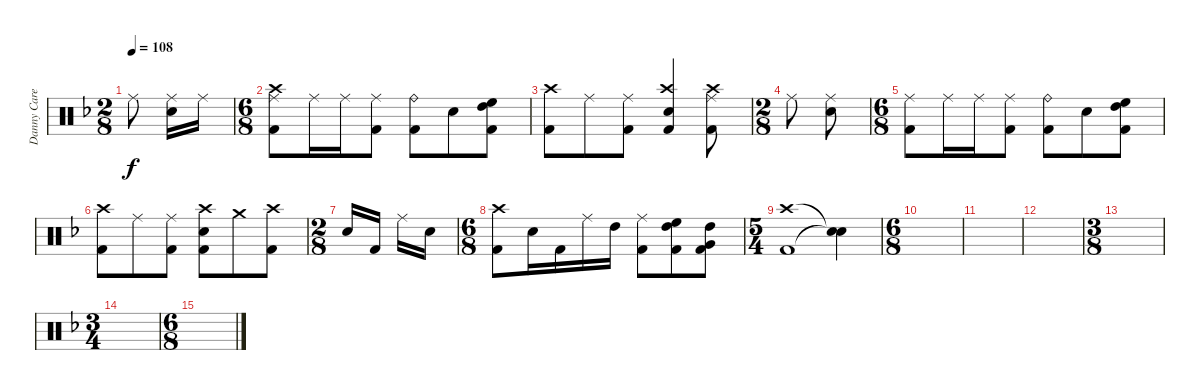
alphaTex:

\track ("Danny Carey" "Danny Care") {instrument percussion}
\staff {score}
\articulation defaults
\ts (2 8)
\tempo 108
\clef neutral
\ks dminor "Ride (middle)".8{dy f}
("Ride (middle)" "Electric Snare (hit)").16 "Ride (middle)".16 |
\ts (6 8)
("Crash high (hit)" "Ride (middle)" "Kick (hit) 2").8 "Ride (middle)".16 "Ride (middle)".16 ("Ride (middle)" "Kick (hit) 2").8 ("Ride (bell)" "Kick (hit) 2").8 "Electric Snare (hit)".8 ("High Floor Tom (hit)" "High Tom (hit)" "Kick (hit) 2").8 |
("Crash high (hit)" "Kick (hit) 2").8 "Ride (middle)".8 ("Ride (middle)" "Kick (hit) 2").8 ("Crash high (hit)" "Electric Snare (hit)" "Kick (hit) 2").4 ("Crash high (hit)" "Ride (middle)" "Kick (hit) 2").8 |
\ts (2 8)
"Ride (middle)".8 ("Ride (middle)" "Electric Snare (hit)").8 |
\ts (6 8)
("Ride (middle)" "Kick (hit) 2").8 "Ride (middle)".16 "Ride (middle)".16 ("Ride (middle)" "Kick (hit) 2").8 ("Ride (bell)" "Kick (hit) 2").8 "Electric Snare (hit)".8 ("High Floor Tom (hit)" "High Tom (hit)" "Kick (hit) 2").8 |
("Crash high (hit)" "Kick (hit) 2").8 "Ride (middle)".8 ("Ride (middle)" "Kick (hit) 2").8 ("Crash high (hit)" "Electric Snare (hit)" "Kick (hit) 2").8 "Crash medium (hit)".8 ("Crash high (hit)" "Kick (hit) 2").8 |
\ts (2 8)
"Electric Snare (hit)".16 "Kick (hit) 2".16 "Ride (middle)".16 "Electric Snare (hit)".16 |
\ts (6 8)
("Crash high (hit)" "Kick (hit) 2").8 "Electric Snare (hit)".16 "Kick (hit) 2".16 "Ride (middle)".16 "High Tom (hit)".16 ("Ride (middle)" "Kick (hit) 2").8 ("High Floor Tom (hit)" "High Tom (hit)" "Kick (hit) 2").8 ("High Tom (hit)" "Very Low Tom (hit)" "Kick (hit) 2").8 |
\ts (5 4)
("Crash high (hit)" "Kick (hit) 2").1 ("Snare (hit)"{t} "Snare (hit)"{t}).4 |
\ts (6 8)
|
|
|
\ts (3 8)
|
\ts (3 4)
|
\ts (6 8)
